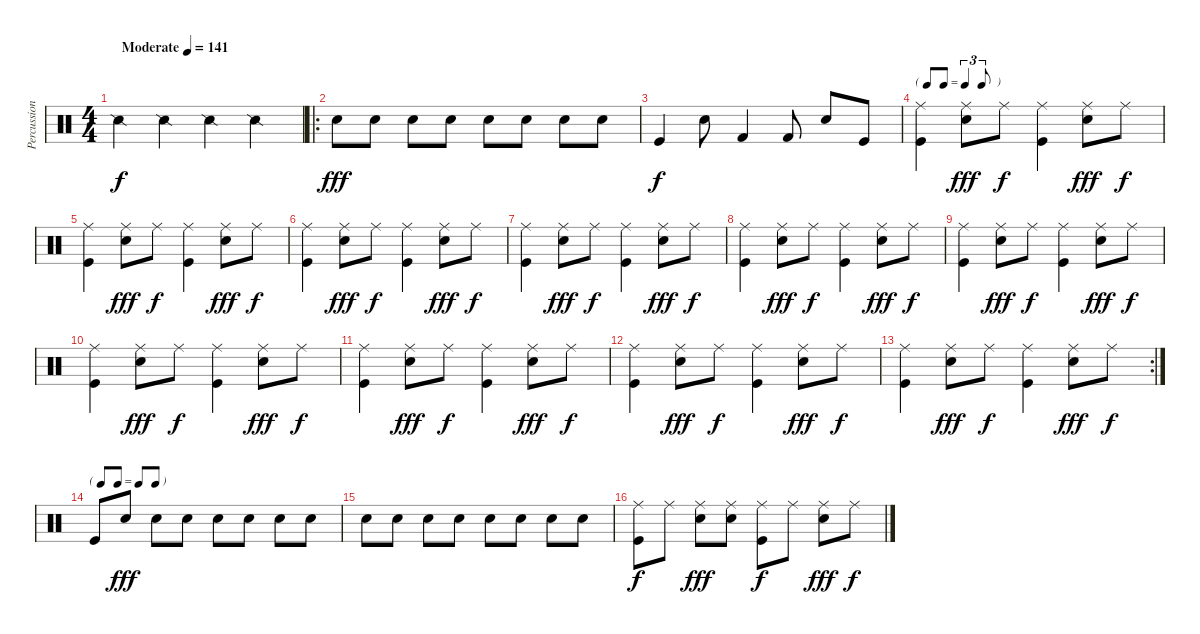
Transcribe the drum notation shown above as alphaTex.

\track ("Percussions 2" "Percussion") {mute instrument percussion}
\staff {score}
\articulation defaults
\ts (4 4)
\tempo (141 "Moderate")
\clef neutral
\ks c "Snare (side stick) 2".4{dy f} "Snare (side stick) 2".4 "Snare (side stick) 2".4 "Snare (side stick) 2".4
|
\ro "Snare (hit) 2".8{dy fff} "Snare (hit) 2".8 "Snare (hit) 2".8 "Snare (hit) 2".8 "Snare (hit) 2".8 "Snare (hit) 2".8 "Snare (hit) 2".8 "Snare (hit) 2".8
|
"Kick (hit)".4{dy f} "Snare (hit) 2".8 "Kick (hit) 2".4 "Kick (hit) 2".8 "Snare (hit) 2".8 "Kick (hit)".8 |
\tf triplet8th
("Kick (hit)" "Ride (middle)").4 ("Snare (hit) 2" "Ride (middle)").8{dy fff} "Ride (middle)".8{dy f} ("Kick (hit)" "Ride (middle)").4 ("Snare (hit) 2" "Ride (middle)").8{dy fff} "Ride (middle)".8{dy f} |
("Kick (hit)" "Ride (middle)").4 ("Snare (hit) 2" "Ride (middle)").8{dy fff} "Ride (middle)".8{dy f} ("Kick (hit)" "Ride (middle)").4 ("Snare (hit) 2" "Ride (middle)").8{dy fff} "Ride (middle)".8{dy f} |
("Kick (hit)" "Ride (middle)").4 ("Snare (hit) 2" "Ride (middle)").8{dy fff} "Ride (middle)".8{dy f} ("Kick (hit)" "Ride (middle)").4 ("Snare (hit) 2" "Ride (middle)").8{dy fff} "Ride (middle)".8{dy f} |
("Kick (hit)" "Ride (middle)").4 ("Snare (hit) 2" "Ride (middle)").8{dy fff} "Ride (middle)".8{dy f} ("Kick (hit)" "Ride (middle)").4 ("Snare (hit) 2" "Ride (middle)").8{dy fff} "Ride (middle)".8{dy f} |
("Kick (hit)" "Ride (middle)").4 ("Snare (hit) 2" "Ride (middle)").8{dy fff} "Ride (middle)".8{dy f} ("Kick (hit)" "Ride (middle)").4 ("Snare (hit) 2" "Ride (middle)").8{dy fff} "Ride (middle)".8{dy f} |
("Kick (hit)" "Ride (middle)").4 ("Snare (hit) 2" "Ride (middle)").8{dy fff} "Ride (middle)".8{dy f} ("Kick (hit)" "Ride (middle)").4 ("Snare (hit) 2" "Ride (middle)").8{dy fff} "Ride (middle)".8{dy f} |
("Kick (hit)" "Ride (middle)").4 ("Snare (hit) 2" "Ride (middle)").8{dy fff} "Ride (middle)".8{dy f} ("Kick (hit)" "Ride (middle)").4 ("Snare (hit) 2" "Ride (middle)").8{dy fff} "Ride (middle)".8{dy f} |
("Kick (hit)" "Ride (middle)").4 ("Snare (hit) 2" "Ride (middle)").8{dy fff} "Ride (middle)".8{dy f} ("Kick (hit)" "Ride (middle)").4 ("Snare (hit) 2" "Ride (middle)").8{dy fff} "Ride (middle)".8{dy f} |
("Kick (hit)" "Ride (middle)").4 ("Snare (hit) 2" "Ride (middle)").8{dy fff} "Ride (middle)".8{dy f} ("Kick (hit)" "Ride (middle)").4 ("Snare (hit) 2" "Ride (middle)").8{dy fff} "Ride (middle)".8{dy f} |
\rc 2
("Kick (hit)" "Ride (middle)").4 ("Snare (hit) 2" "Ride (middle)").8{dy fff} "Ride (middle)".8{dy f} ("Kick (hit)" "Ride (middle)").4 ("Snare (hit) 2" "Ride (middle)").8{dy fff} "Ride (middle)".8{dy f} |
\tf none "Kick (hit)".8 "Snare (hit) 2".8{dy fff} "Snare (hit) 2".8 "Snare (hit) 2".8 "Snare (hit) 2".8 "Snare (hit) 2".8 "Snare (hit) 2".8 "Snare (hit) 2".8
|
"Snare (hit) 2".8 "Snare (hit) 2".8 "Snare (hit) 2".8 "Snare (hit) 2".8 "Snare (hit) 2".8 "Snare (hit) 2".8 "Snare (hit) 2".8 "Snare (hit) 2".8 |
("Kick (hit)" "Ride (middle)").8{dy f} "Ride (middle)".8 ("Snare (hit) 2" "Ride (middle)").8{dy fff} ("Snare (hit) 2" "Ride (middle)").8 ("Kick (hit)" "Ride (middle)").8{dy f} "Ride (middle)".8 ("Snare (hit) 2" "Ride (middle)").8{dy fff} "Ride (middle)".8{dy f}
